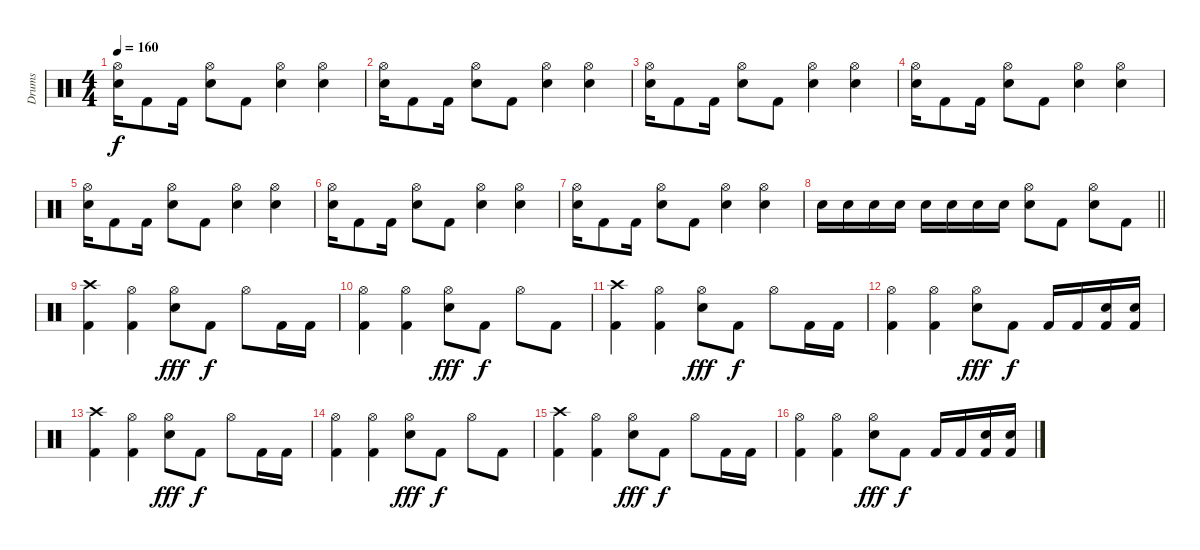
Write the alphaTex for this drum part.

\track ("Drums" "Drums") {instrument percussion}
\staff {score}
\articulation defaults
\ts (4 4)
\tempo 160
\clef neutral
\ks c
("Hi-Hat (open)" "Electric Snare (hit)").16{dy f} "Kick (hit) 2".8 "Kick (hit) 2".16 ("Hi-Hat (open)" "Electric Snare (hit)").8 "Kick (hit) 2".8 ("Hi-Hat (open)" "Electric Snare (hit)").4 ("Hi-Hat (open)" "Electric Snare (hit)").4 |
("Hi-Hat (open)" "Electric Snare (hit)").16 "Kick (hit) 2".8 "Kick (hit) 2".16 ("Hi-Hat (open)" "Electric Snare (hit)").8 "Kick (hit) 2".8 ("Hi-Hat (open)" "Electric Snare (hit)").4 ("Hi-Hat (open)" "Electric Snare (hit)").4 |
("Hi-Hat (open)" "Electric Snare (hit)").16 "Kick (hit) 2".8 "Kick (hit) 2".16 ("Hi-Hat (open)" "Electric Snare (hit)").8 "Kick (hit) 2".8 ("Hi-Hat (open)" "Electric Snare (hit)").4 ("Hi-Hat (open)" "Electric Snare (hit)").4 |
("Hi-Hat (open)" "Electric Snare (hit)").16 "Kick (hit) 2".8 "Kick (hit) 2".16 ("Hi-Hat (open)" "Electric Snare (hit)").8 "Kick (hit) 2".8 ("Hi-Hat (open)" "Electric Snare (hit)").4 ("Hi-Hat (open)" "Electric Snare (hit)").4 |
("Hi-Hat (open)" "Electric Snare (hit)").16 "Kick (hit) 2".8 "Kick (hit) 2".16 ("Hi-Hat (open)" "Electric Snare (hit)").8 "Kick (hit) 2".8 ("Hi-Hat (open)" "Electric Snare (hit)").4 ("Hi-Hat (open)" "Electric Snare (hit)").4 |
("Hi-Hat (open)" "Electric Snare (hit)").16 "Kick (hit) 2".8 "Kick (hit) 2".16 ("Hi-Hat (open)" "Electric Snare (hit)").8 "Kick (hit) 2".8 ("Hi-Hat (open)" "Electric Snare (hit)").4 ("Hi-Hat (open)" "Electric Snare (hit)").4 |
("Hi-Hat (open)" "Electric Snare (hit)").16 "Kick (hit) 2".8 "Kick (hit) 2".16 ("Hi-Hat (open)" "Electric Snare (hit)").8 "Kick (hit) 2".8 ("Hi-Hat (open)" "Electric Snare (hit)").4 ("Hi-Hat (open)" "Electric Snare (hit)").4 |
\barLineRight lightlight "Electric Snare (hit)".16 "Electric Snare (hit)".16 "Electric Snare (hit)".16 "Electric Snare (hit)".16 "Electric Snare (hit)".16 "Electric Snare (hit)".16 "Electric Snare (hit)".16 "Electric Snare (hit)".16
("Hi-Hat (open)" "Electric Snare (hit)").8 "Kick (hit) 2".8 ("Hi-Hat (open)" "Electric Snare (hit)").8 "Kick (hit) 2".8 |
("Crash high (hit)" "Kick (hit) 2").4 ("Hi-Hat (open)" "Kick (hit) 2").4 ("Hi-Hat (open)" "Snare (hit) 2").8{dy fff} "Kick (hit) 2".8{dy f} "Hi-Hat (open)".8 "Kick (hit) 2".16 "Kick (hit) 2".16 |
("Hi-Hat (open)" "Kick (hit) 2").4 ("Hi-Hat (open)" "Kick (hit) 2").4 ("Hi-Hat (open)" "Snare (hit) 2").8{dy fff} "Kick (hit) 2".8{dy f} "Hi-Hat (open)".8 "Kick (hit) 2".8 |
("Crash high (hit)" "Kick (hit) 2").4 ("Hi-Hat (open)" "Kick (hit) 2").4 ("Hi-Hat (open)" "Snare (hit) 2").8{dy fff} "Kick (hit) 2".8{dy f} "Hi-Hat (open)".8 "Kick (hit) 2".16 "Kick (hit) 2".16 |
("Hi-Hat (open)" "Kick (hit) 2").4 ("Hi-Hat (open)" "Kick (hit) 2").4 ("Hi-Hat (open)" "Snare (hit) 2").8{dy fff} "Kick (hit) 2".8{dy f} "Kick (hit) 2".16 "Kick (hit) 2".16 ("Snare (hit) 2" "Kick (hit) 2").16 ("Snare (hit) 2" "Kick (hit) 2").16 |
("Crash high (hit)" "Kick (hit) 2").4 ("Hi-Hat (open)" "Kick (hit) 2").4 ("Hi-Hat (open)" "Snare (hit) 2").8{dy fff} "Kick (hit) 2".8{dy f} "Hi-Hat (open)".8 "Kick (hit) 2".16 "Kick (hit) 2".16 |
("Hi-Hat (open)" "Kick (hit) 2").4 ("Hi-Hat (open)" "Kick (hit) 2").4 ("Hi-Hat (open)" "Snare (hit) 2").8{dy fff} "Kick (hit) 2".8{dy f} "Hi-Hat (open)".8 "Kick (hit) 2".8 |
("Crash high (hit)" "Kick (hit) 2").4 ("Hi-Hat (open)" "Kick (hit) 2").4 ("Hi-Hat (open)" "Snare (hit) 2").8{dy fff} "Kick (hit) 2".8{dy f} "Hi-Hat (open)".8 "Kick (hit) 2".16 "Kick (hit) 2".16 |
("Hi-Hat (open)" "Kick (hit) 2").4 ("Hi-Hat (open)" "Kick (hit) 2").4 ("Hi-Hat (open)" "Snare (hit) 2").8{dy fff} "Kick (hit) 2".8{dy f} "Kick (hit) 2".16 "Kick (hit) 2".16 ("Snare (hit) 2" "Kick (hit) 2").16 ("Snare (hit) 2" "Kick (hit) 2").16
